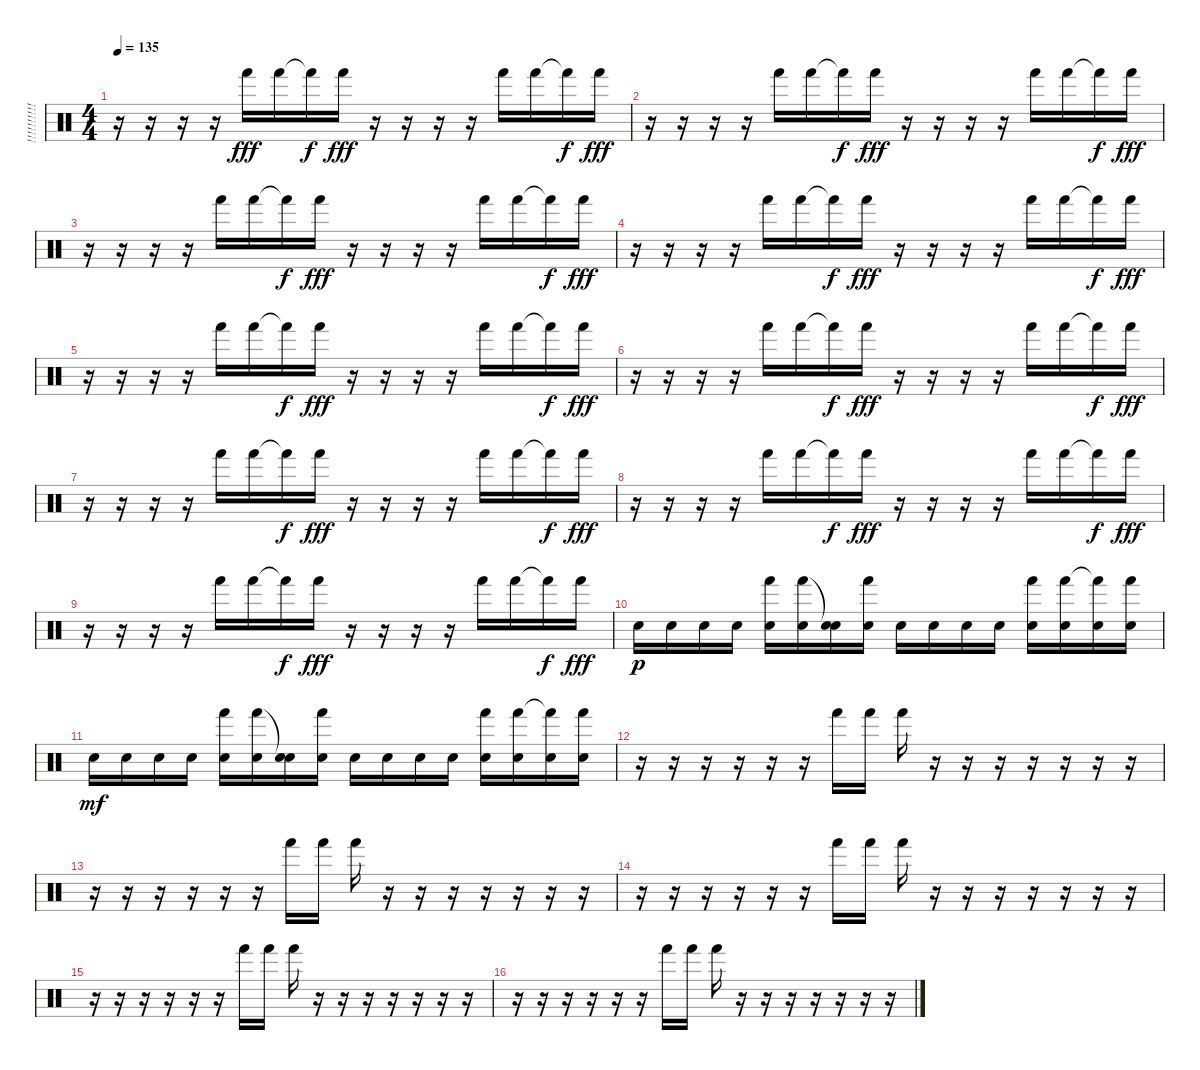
\track ("!!!!!!!!!!!!!" "!!!!!!!!!!") {instrument percussion}
\staff {score}
\articulation defaults
\ts (4 4)
\tempo 135
\clef neutral
\ks c
r.16{dy fff} r.16 r.16 r.16 "Hand (hit)".16 "Hand (hit)".16 "Hand (hit)"{t}.16{dy f} "Hand (hit)".16{dy fff} r.16 r.16 r.16 r.16 "Hand (hit)".16 "Hand (hit)".16 "Hand (hit)"{t}.16{dy f} "Hand (hit)".16{dy fff} |
r.16 r.16 r.16 r.16 "Hand (hit)".16 "Hand (hit)".16 "Hand (hit)"{t}.16{dy f} "Hand (hit)".16{dy fff} r.16 r.16 r.16 r.16 "Hand (hit)".16 "Hand (hit)".16 "Hand (hit)"{t}.16{dy f} "Hand (hit)".16{dy fff} |
r.16 r.16 r.16 r.16 "Hand (hit)".16 "Hand (hit)".16 "Hand (hit)"{t}.16{dy f} "Hand (hit)".16{dy fff} r.16 r.16 r.16 r.16 "Hand (hit)".16 "Hand (hit)".16 "Hand (hit)"{t}.16{dy f} "Hand (hit)".16{dy fff} |
r.16 r.16 r.16 r.16 "Hand (hit)".16 "Hand (hit)".16 "Hand (hit)"{t}.16{dy f} "Hand (hit)".16{dy fff} r.16 r.16 r.16 r.16 "Hand (hit)".16 "Hand (hit)".16 "Hand (hit)"{t}.16{dy f} "Hand (hit)".16{dy fff} |
r.16 r.16 r.16 r.16 "Hand (hit)".16 "Hand (hit)".16 "Hand (hit)"{t}.16{dy f} "Hand (hit)".16{dy fff} r.16 r.16 r.16 r.16 "Hand (hit)".16 "Hand (hit)".16 "Hand (hit)"{t}.16{dy f} "Hand (hit)".16{dy fff} |
r.16 r.16 r.16 r.16 "Hand (hit)".16 "Hand (hit)".16 "Hand (hit)"{t}.16{dy f} "Hand (hit)".16{dy fff} r.16 r.16 r.16 r.16 "Hand (hit)".16 "Hand (hit)".16 "Hand (hit)"{t}.16{dy f} "Hand (hit)".16{dy fff} |
r.16 r.16 r.16 r.16 "Hand (hit)".16 "Hand (hit)".16 "Hand (hit)"{t}.16{dy f} "Hand (hit)".16{dy fff} r.16 r.16 r.16 r.16 "Hand (hit)".16 "Hand (hit)".16 "Hand (hit)"{t}.16{dy f} "Hand (hit)".16{dy fff} |
r.16 r.16 r.16 r.16 "Hand (hit)".16 "Hand (hit)".16 "Hand (hit)"{t}.16{dy f} "Hand (hit)".16{dy fff} r.16 r.16 r.16 r.16 "Hand (hit)".16 "Hand (hit)".16 "Hand (hit)"{t}.16{dy f} "Hand (hit)".16{dy fff} |
r.16 r.16 r.16 r.16 "Hand (hit)".16 "Hand (hit)".16 "Hand (hit)"{t}.16{dy f} "Hand (hit)".16{dy fff} r.16 r.16 r.16 r.16 "Hand (hit)".16 "Hand (hit)".16 "Hand (hit)"{t}.16{dy f} "Hand (hit)".16{dy fff} |
"Electric Snare (hit)".16{dy p} "Electric Snare (hit)".16 "Electric Snare (hit)".16 "Electric Snare (hit)".16 ("Hand (hit)" "Electric Snare (hit)").16 ("Hand (hit)" "Electric Snare (hit)").16 ("Snare (hit)"{t} "Electric Snare (hit)").16 ("Hand (hit)" "Electric Snare (hit)").16 "Electric Snare (hit)".16 "Electric Snare (hit)".16 "Electric Snare (hit)".16 "Electric Snare (hit)".16 ("Hand (hit)" "Electric Snare (hit)").16 ("Hand (hit)" "Electric Snare (hit)").16 ("Hand (hit)"{t} "Electric Snare (hit)").16 ("Hand (hit)" "Electric Snare (hit)").16 |
"Electric Snare (hit)".16{dy mf} "Electric Snare (hit)".16 "Electric Snare (hit)".16 "Electric Snare (hit)".16 ("Hand (hit)" "Electric Snare (hit)").16 ("Hand (hit)" "Electric Snare (hit)").16 ("Snare (hit)"{t} "Electric Snare (hit)").16 ("Hand (hit)" "Electric Snare (hit)").16 "Electric Snare (hit)".16 "Electric Snare (hit)".16 "Electric Snare (hit)".16 "Electric Snare (hit)".16 ("Hand (hit)" "Electric Snare (hit)").16 ("Hand (hit)" "Electric Snare (hit)").16 ("Hand (hit)"{t} "Electric Snare (hit)").16 ("Hand (hit)" "Electric Snare (hit)").16 |
r.16 r.16 r.16 r.16 r.16 r.16 "Hand (hit)".16 "Hand (hit)".16 "Hand (hit)".16 r.16 r.16 r.16 r.16 r.16 r.16 r.16 |
r.16 r.16 r.16 r.16 r.16 r.16 "Hand (hit)".16 "Hand (hit)".16 "Hand (hit)".16 r.16 r.16 r.16 r.16 r.16 r.16 r.16 |
r.16 r.16 r.16 r.16 r.16 r.16 "Hand (hit)".16 "Hand (hit)".16 "Hand (hit)".16 r.16 r.16 r.16 r.16 r.16 r.16 r.16 |
r.16 r.16 r.16 r.16 r.16 r.16 "Hand (hit)".16 "Hand (hit)".16 "Hand (hit)".16 r.16 r.16 r.16 r.16 r.16 r.16 r.16 |
r.16 r.16 r.16 r.16 r.16 r.16 "Hand (hit)".16 "Hand (hit)".16 "Hand (hit)".16 r.16 r.16 r.16 r.16 r.16 r.16 r.16
